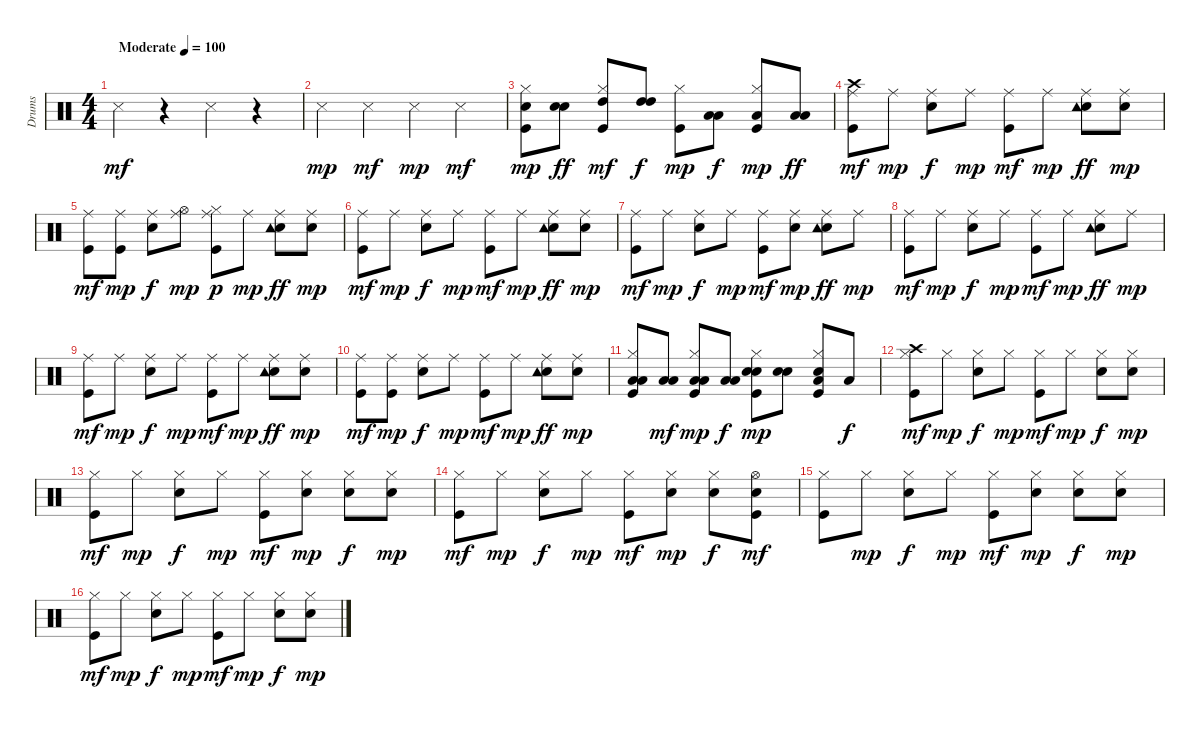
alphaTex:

\track ("Drums" "Drums") {instrument percussion}
\staff {score}
\articulation defaults
\ts (4 4)
\tempo (100 "Moderate")
\clef neutral
\ks c "Snare (side stick) 3".4{dy mf}
r.4 "Snare (side stick) 3".4 r.4 |
"Snare (side stick) 3".4{dy mp} "Snare (side stick) 3".4{dy mf} "Snare (side stick) 3".4{dy mp} "Snare (side stick) 3".4{dy mf} |
("Kick (hit)" "Snare (hit) 2" "Hi-Hat (closed)").8{dy mp} ("Snare (hit) 2" "Snare (hit) 2").8{dy ff} ("Kick (hit)" "Hi-Hat (closed)" "High Tom (hit)").8{dy mf} ("High Tom (hit)" "High Tom (hit)").8{dy f} ("Kick (hit)" "Hi-Hat (closed)").8{dy mp} ("Low Tom (hit)" "Low Tom (hit)").8{dy f} ("Kick (hit)" "Hi-Hat (closed)" "Low Floor Tom (hit)").8{dy mp} ("Low Floor Tom (hit)" "Low Floor Tom (hit)").8{dy ff} |
("Kick (hit)" "Ride (middle)" "Crash high (hit)").8{dy mf} "Ride (middle)".8{dy mp} ("Snare (hit) 2" "Ride (middle)").8{dy f} "Ride (middle)".8{dy mp} ("Kick (hit)" "Ride (middle)").8{dy mf} "Ride (middle)".8{dy mp} ("Snare (hit) 2" "Ride (middle)" "Tambourine (hit)").8{dy ff} ("Snare (hit) 2" "Ride (middle)").8{dy mp} |
("Kick (hit)" "Ride (middle)").8{dy mf} ("Kick (hit)" "Ride (middle)").8{dy mp} ("Snare (hit) 2" "Ride (middle)").8{dy f} ("Ride (middle)" "Hi-Hat (open)").8{dy mp} ("Kick (hit)" "Hi-Hat (closed)" "Ride (middle)").8{dy p} "Ride (middle)".8{dy mp} ("Snare (hit) 2" "Ride (middle)" "Tambourine (hit)").8{dy ff} ("Snare (hit) 2" "Ride (middle)").8{dy mp} |
("Kick (hit)" "Ride (middle)").8{dy mf} "Ride (middle)".8{dy mp} ("Snare (hit) 2" "Ride (middle)").8{dy f} "Ride (middle)".8{dy mp} ("Kick (hit)" "Ride (middle)").8{dy mf} "Ride (middle)".8{dy mp} ("Snare (hit) 2" "Ride (middle)" "Tambourine (hit)").8{dy ff} ("Snare (hit) 2" "Ride (middle)").8{dy mp} |
("Kick (hit)" "Ride (middle)").8{dy mf} "Ride (middle)".8{dy mp} ("Snare (hit) 2" "Ride (middle)").8{dy f} "Ride (middle)".8{dy mp} ("Kick (hit)" "Ride (middle)").8{dy mf} ("Snare (hit) 2" "Ride (middle)").8{dy mp} ("Snare (hit) 2" "Ride (middle)" "Tambourine (hit)").8{dy ff} "Ride (middle)".8{dy mp} |
("Kick (hit)" "Ride (middle)").8{dy mf} "Ride (middle)".8{dy mp} ("Snare (hit) 2" "Ride (middle)").8{dy f} "Ride (middle)".8{dy mp} ("Kick (hit)" "Ride (middle)").8{dy mf} "Ride (middle)".8{dy mp} ("Snare (hit) 2" "Ride (middle)" "Tambourine (hit)").8{dy ff} "Ride (middle)".8{dy mp} |
("Kick (hit)" "Ride (middle)").8{dy mf} "Ride (middle)".8{dy mp} ("Snare (hit) 2" "Ride (middle)").8{dy f} "Ride (middle)".8{dy mp} ("Kick (hit)" "Ride (middle)").8{dy mf} "Ride (middle)".8{dy mp} ("Snare (hit) 2" "Ride (middle)" "Tambourine (hit)").8{dy ff} ("Snare (hit) 2" "Ride (middle)").8{dy mp} |
("Kick (hit)" "Ride (middle)").8{dy mf} ("Kick (hit)" "Ride (middle)").8{dy mp} ("Snare (hit) 2" "Ride (middle)").8{dy f} "Ride (middle)".8{dy mp} ("Kick (hit)" "Ride (middle)").8{dy mf} "Ride (middle)".8{dy mp} ("Snare (hit) 2" "Ride (middle)" "Tambourine (hit)").8{dy ff} ("Snare (hit) 2" "Ride (middle)").8{dy mp} |
("Kick (hit)" "Hi-Hat (closed)" "Low Floor Tom (hit)" "Low Tom (hit)").8 ("Low Floor Tom (hit)" "Low Tom (hit)").8{dy mf} ("Kick (hit)" "Hi-Hat (closed)" "Low Floor Tom (hit)" "Low Tom (hit)").8{dy mp} ("Low Floor Tom (hit)" "Low Tom (hit)").8{dy f} ("Kick (hit)" "Snare (hit) 2" "Hi-Hat (closed)" "Snare (hit) 2").8{dy mp} ("Snare (hit) 2" "Snare (hit) 2").8 ("Kick (hit)" "Snare (hit) 2" "Hi-Hat (closed)" "Low Tom (hit)").8 "Low Floor Tom (hit)".8{dy f} |
("Kick (hit)" "Hi-Hat (closed)" "Crash high (hit)").8{dy mf} "Hi-Hat (closed)".8{dy mp} ("Snare (hit) 2" "Hi-Hat (closed)").8{dy f} "Hi-Hat (closed)".8{dy mp} ("Kick (hit)" "Hi-Hat (closed)").8{dy mf} "Hi-Hat (closed)".8{dy mp} ("Snare (hit) 2" "Hi-Hat (closed)").8{dy f} ("Snare (hit) 2" "Hi-Hat (closed)").8{dy mp} |
("Kick (hit)" "Hi-Hat (closed)").8{dy mf} "Hi-Hat (closed)".8{dy mp} ("Snare (hit) 2" "Hi-Hat (closed)").8{dy f} "Hi-Hat (closed)".8{dy mp} ("Kick (hit)" "Hi-Hat (closed)").8{dy mf} ("Snare (hit) 2" "Hi-Hat (closed)").8{dy mp} ("Snare (hit) 2" "Hi-Hat (closed)").8{dy f} ("Snare (hit) 2" "Hi-Hat (closed)").8{dy mp} |
("Kick (hit)" "Hi-Hat (closed)").8{dy mf} "Hi-Hat (closed)".8{dy mp} ("Snare (hit) 2" "Hi-Hat (closed)").8{dy f} "Hi-Hat (closed)".8{dy mp} ("Kick (hit)" "Hi-Hat (closed)").8{dy mf} ("Snare (hit) 2" "Hi-Hat (closed)").8{dy mp} ("Snare (hit) 2" "Hi-Hat (closed)").8{dy f} ("Kick (hit)" "Snare (hit) 2" "Hi-Hat (open)").8{dy mf} |
("Kick (hit)" "Hi-Hat (closed)").8 "Hi-Hat (closed)".8{dy mp} ("Snare (hit) 2" "Hi-Hat (closed)").8{dy f} "Hi-Hat (closed)".8{dy mp} ("Kick (hit)" "Hi-Hat (closed)").8{dy mf} ("Snare (hit) 2" "Hi-Hat (closed)").8{dy mp} ("Snare (hit) 2" "Hi-Hat (closed)").8{dy f} ("Snare (hit) 2" "Hi-Hat (closed)").8{dy mp} |
("Kick (hit)" "Hi-Hat (closed)").8{dy mf} "Hi-Hat (closed)".8{dy mp} ("Snare (hit) 2" "Hi-Hat (closed)").8{dy f} "Hi-Hat (closed)".8{dy mp} ("Kick (hit)" "Hi-Hat (closed)").8{dy mf} "Hi-Hat (closed)".8{dy mp} ("Snare (hit) 2" "Hi-Hat (closed)").8{dy f} ("Snare (hit) 2" "Hi-Hat (closed)").8{dy mp}
